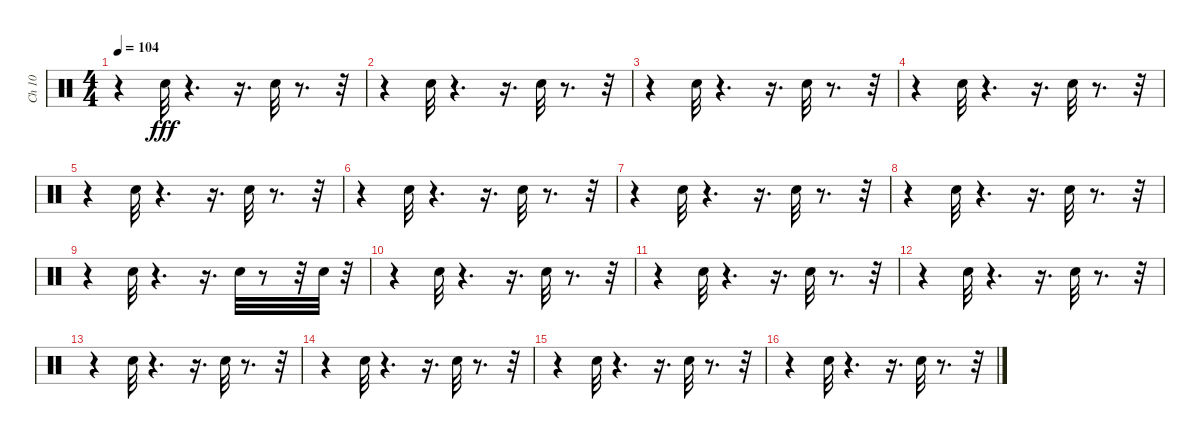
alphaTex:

\track ("Ch 10   " "Ch 10   ") {instrument percussion}
\staff {score}
\articulation defaults
\ts (4 4)
\tempo 104
\clef neutral
\ks c
r.4{dy fff} "Snare (hit) 2".32 r.4{d} r.16{d} "Snare (hit) 2".32 r.8{d} r.32 |
r.4 "Snare (hit) 2".32 r.4{d} r.16{d} "Snare (hit) 2".32 r.8{d} r.32 |
r.4 "Snare (hit) 2".32 r.4{d} r.16{d} "Snare (hit) 2".32 r.8{d} r.32 |
r.4 "Snare (hit) 2".32 r.4{d} r.16{d} "Snare (hit) 2".32 r.8{d} r.32 |
r.4 "Snare (hit) 2".32 r.4{d} r.16{d} "Snare (hit) 2".32 r.8{d} r.32 |
r.4 "Snare (hit) 2".32 r.4{d} r.16{d} "Snare (hit) 2".32 r.8{d} r.32 |
r.4 "Snare (hit) 2".32 r.4{d} r.16{d} "Snare (hit) 2".32 r.8{d} r.32 |
r.4 "Snare (hit) 2".32 r.4{d} r.16{d} "Snare (hit) 2".32 r.8{d} r.32 |
r.4 "Snare (hit) 2".32 r.4{d} r.16{d} "Snare (hit) 2".32 r.8 r.32 "Snare (hit) 2".32 r.32 |
r.4 "Snare (hit) 2".32 r.4{d} r.16{d} "Snare (hit) 2".32 r.8{d} r.32 |
r.4 "Snare (hit) 2".32 r.4{d} r.16{d} "Snare (hit) 2".32 r.8{d} r.32 |
r.4 "Snare (hit) 2".32 r.4{d} r.16{d} "Snare (hit) 2".32 r.8{d} r.32 |
r.4 "Snare (hit) 2".32 r.4{d} r.16{d} "Snare (hit) 2".32 r.8{d} r.32 |
r.4 "Snare (hit) 2".32 r.4{d} r.16{d} "Snare (hit) 2".32 r.8{d} r.32 |
r.4 "Snare (hit) 2".32 r.4{d} r.16{d} "Snare (hit) 2".32 r.8{d} r.32 |
r.4 "Snare (hit) 2".32 r.4{d} r.16{d} "Snare (hit) 2".32 r.8{d} r.32
